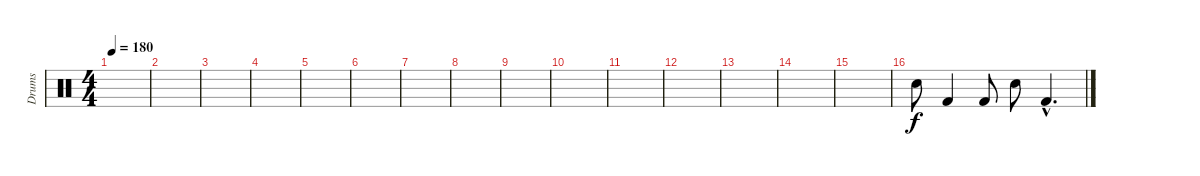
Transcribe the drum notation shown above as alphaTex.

\track ("Drums" "Drums") {instrument percussion}
\staff {score}
\articulation defaults
\ts (4 4)
\tempo 180
\clef neutral
\ks c
|
|
|
|
|
|
|
|
|
|
|
|
|
|
|
"Snare (hit) 2".8 "Kick (hit) 2".4 "Kick (hit) 2".8 "Snare (hit) 2".8 "Kick (hit) 2"{hac}.4{d}
